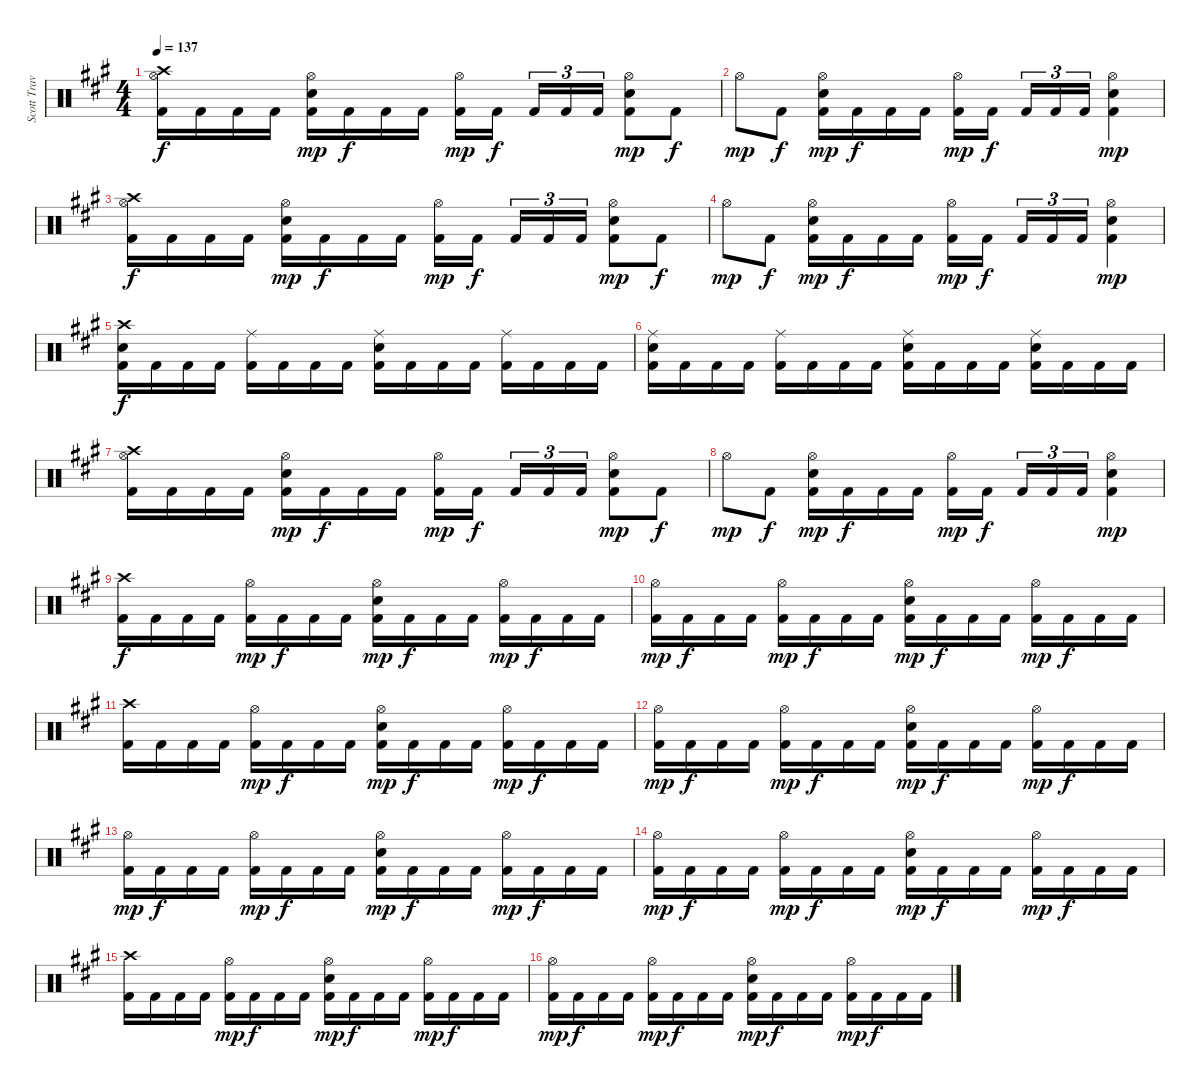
\track ("Scott Travis" "Scott Trav") {instrument percussion}
\staff {score}
\articulation defaults
\ts (4 4)
\tempo 137
\clef neutral
\ks f#minor
("Hi-Hat (open)" "Crash high (hit)" "Kick (hit) 2").16{dy f} "Kick (hit) 2".16 "Kick (hit) 2".16 "Kick (hit) 2".16 ("Hi-Hat (open)" "Snare (hit) 2" "Kick (hit) 2").16{dy mp} "Kick (hit) 2".16{dy f} "Kick (hit) 2".16 "Kick (hit) 2".16 ("Hi-Hat (open)" "Kick (hit) 2").16{dy mp} "Kick (hit) 2".16{dy f} "Kick (hit) 2".16{tu (3 2)} "Kick (hit) 2".16{tu (3 2)} "Kick (hit) 2".16{tu (3 2)} ("Hi-Hat (open)" "Snare (hit) 2" "Kick (hit) 2").8{dy mp} "Kick (hit) 2".8{dy f} |
"Hi-Hat (open)".8{dy mp} "Kick (hit) 2".8{dy f} ("Hi-Hat (open)" "Snare (hit) 2" "Kick (hit) 2").16{dy mp} "Kick (hit) 2".16{dy f} "Kick (hit) 2".16 "Kick (hit) 2".16 ("Hi-Hat (open)" "Kick (hit) 2").16{dy mp} "Kick (hit) 2".16{dy f} "Kick (hit) 2".16{tu (3 2)} "Kick (hit) 2".16{tu (3 2)} "Kick (hit) 2".16{tu (3 2)} ("Hi-Hat (open)" "Snare (hit) 2" "Kick (hit) 2").4{dy mp} |
("Hi-Hat (open)" "Crash high (hit)" "Kick (hit) 2").16{dy f} "Kick (hit) 2".16 "Kick (hit) 2".16 "Kick (hit) 2".16 ("Hi-Hat (open)" "Snare (hit) 2" "Kick (hit) 2").16{dy mp} "Kick (hit) 2".16{dy f} "Kick (hit) 2".16 "Kick (hit) 2".16 ("Hi-Hat (open)" "Kick (hit) 2").16{dy mp} "Kick (hit) 2".16{dy f} "Kick (hit) 2".16{tu (3 2)} "Kick (hit) 2".16{tu (3 2)} "Kick (hit) 2".16{tu (3 2)} ("Hi-Hat (open)" "Snare (hit) 2" "Kick (hit) 2").8{dy mp} "Kick (hit) 2".8{dy f} |
"Hi-Hat (open)".8{dy mp} "Kick (hit) 2".8{dy f} ("Hi-Hat (open)" "Snare (hit) 2" "Kick (hit) 2").16{dy mp} "Kick (hit) 2".16{dy f} "Kick (hit) 2".16 "Kick (hit) 2".16 ("Hi-Hat (open)" "Kick (hit) 2").16{dy mp} "Kick (hit) 2".16{dy f} "Kick (hit) 2".16{tu (3 2)} "Kick (hit) 2".16{tu (3 2)} "Kick (hit) 2".16{tu (3 2)} ("Hi-Hat (open)" "Snare (hit) 2" "Kick (hit) 2").4{dy mp} |
("Crash high (hit)" "Snare (hit) 2" "Kick (hit) 2").16{dy f} "Kick (hit) 2".16 "Kick (hit) 2".16 "Kick (hit) 2".16 ("Ride (middle)" "Kick (hit) 2").16 "Kick (hit) 2".16 "Kick (hit) 2".16 "Kick (hit) 2".16 ("Ride (middle)" "Snare (hit) 2" "Kick (hit) 2").16 "Kick (hit) 2".16 "Kick (hit) 2".16 "Kick (hit) 2".16 ("Ride (middle)" "Kick (hit) 2").16 "Kick (hit) 2".16 "Kick (hit) 2".16 "Kick (hit) 2".16 |
("Ride (middle)" "Snare (hit) 2" "Kick (hit) 2").16 "Kick (hit) 2".16 "Kick (hit) 2".16 "Kick (hit) 2".16 ("Ride (middle)" "Kick (hit) 2").16 "Kick (hit) 2".16 "Kick (hit) 2".16 "Kick (hit) 2".16 ("Ride (middle)" "Snare (hit) 2" "Kick (hit) 2").16 "Kick (hit) 2".16 "Kick (hit) 2".16 "Kick (hit) 2".16 ("Ride (middle)" "Snare (hit) 2" "Kick (hit) 2").16 "Kick (hit) 2".16 "Kick (hit) 2".16 "Kick (hit) 2".16 |
("Hi-Hat (open)" "Crash high (hit)" "Kick (hit) 2").16 "Kick (hit) 2".16 "Kick (hit) 2".16 "Kick (hit) 2".16 ("Hi-Hat (open)" "Snare (hit) 2" "Kick (hit) 2").16{dy mp} "Kick (hit) 2".16{dy f} "Kick (hit) 2".16 "Kick (hit) 2".16 ("Hi-Hat (open)" "Kick (hit) 2").16{dy mp} "Kick (hit) 2".16{dy f} "Kick (hit) 2".16{tu (3 2)} "Kick (hit) 2".16{tu (3 2)} "Kick (hit) 2".16{tu (3 2)} ("Hi-Hat (open)" "Snare (hit) 2" "Kick (hit) 2").8{dy mp} "Kick (hit) 2".8{dy f} |
"Hi-Hat (open)".8{dy mp} "Kick (hit) 2".8{dy f} ("Hi-Hat (open)" "Snare (hit) 2" "Kick (hit) 2").16{dy mp} "Kick (hit) 2".16{dy f} "Kick (hit) 2".16 "Kick (hit) 2".16 ("Hi-Hat (open)" "Kick (hit) 2").16{dy mp} "Kick (hit) 2".16{dy f} "Kick (hit) 2".16{tu (3 2)} "Kick (hit) 2".16{tu (3 2)} "Kick (hit) 2".16{tu (3 2)} ("Hi-Hat (open)" "Snare (hit) 2" "Kick (hit) 2").4{dy mp} |
("Crash high (hit)" "Kick (hit) 2").16{dy f} "Kick (hit) 2".16 "Kick (hit) 2".16 "Kick (hit) 2".16 ("Hi-Hat (open)" "Kick (hit) 2").16{dy mp} "Kick (hit) 2".16{dy f} "Kick (hit) 2".16 "Kick (hit) 2".16 ("Hi-Hat (open)" "Snare (hit) 2" "Kick (hit) 2").16{dy mp} "Kick (hit) 2".16{dy f} "Kick (hit) 2".16 "Kick (hit) 2".16 ("Hi-Hat (open)" "Kick (hit) 2").16{dy mp} "Kick (hit) 2".16{dy f} "Kick (hit) 2".16 "Kick (hit) 2".16 |
("Hi-Hat (open)" "Kick (hit) 2").16{dy mp} "Kick (hit) 2".16{dy f} "Kick (hit) 2".16 "Kick (hit) 2".16 ("Hi-Hat (open)" "Kick (hit) 2").16{dy mp} "Kick (hit) 2".16{dy f} "Kick (hit) 2".16 "Kick (hit) 2".16 ("Hi-Hat (open)" "Snare (hit) 2" "Kick (hit) 2").16{dy mp} "Kick (hit) 2".16{dy f} "Kick (hit) 2".16 "Kick (hit) 2".16 ("Hi-Hat (open)" "Kick (hit) 2").16{dy mp} "Kick (hit) 2".16{dy f} "Kick (hit) 2".16 "Kick (hit) 2".16 |
("Crash high (hit)" "Kick (hit) 2").16 "Kick (hit) 2".16 "Kick (hit) 2".16 "Kick (hit) 2".16 ("Hi-Hat (open)" "Kick (hit) 2").16{dy mp} "Kick (hit) 2".16{dy f} "Kick (hit) 2".16 "Kick (hit) 2".16 ("Hi-Hat (open)" "Snare (hit) 2" "Kick (hit) 2").16{dy mp} "Kick (hit) 2".16{dy f} "Kick (hit) 2".16 "Kick (hit) 2".16 ("Hi-Hat (open)" "Kick (hit) 2").16{dy mp} "Kick (hit) 2".16{dy f} "Kick (hit) 2".16 "Kick (hit) 2".16 |
("Hi-Hat (open)" "Kick (hit) 2").16{dy mp} "Kick (hit) 2".16{dy f} "Kick (hit) 2".16 "Kick (hit) 2".16 ("Hi-Hat (open)" "Kick (hit) 2").16{dy mp} "Kick (hit) 2".16{dy f} "Kick (hit) 2".16 "Kick (hit) 2".16 ("Hi-Hat (open)" "Snare (hit) 2" "Kick (hit) 2").16{dy mp} "Kick (hit) 2".16{dy f} "Kick (hit) 2".16 "Kick (hit) 2".16 ("Hi-Hat (open)" "Kick (hit) 2").16{dy mp} "Kick (hit) 2".16{dy f} "Kick (hit) 2".16 "Kick (hit) 2".16 |
("Hi-Hat (open)" "Kick (hit) 2").16{dy mp} "Kick (hit) 2".16{dy f} "Kick (hit) 2".16 "Kick (hit) 2".16 ("Hi-Hat (open)" "Kick (hit) 2").16{dy mp} "Kick (hit) 2".16{dy f} "Kick (hit) 2".16 "Kick (hit) 2".16 ("Hi-Hat (open)" "Snare (hit) 2" "Kick (hit) 2").16{dy mp} "Kick (hit) 2".16{dy f} "Kick (hit) 2".16 "Kick (hit) 2".16 ("Hi-Hat (open)" "Kick (hit) 2").16{dy mp} "Kick (hit) 2".16{dy f} "Kick (hit) 2".16 "Kick (hit) 2".16 |
("Hi-Hat (open)" "Kick (hit) 2").16{dy mp} "Kick (hit) 2".16{dy f} "Kick (hit) 2".16 "Kick (hit) 2".16 ("Hi-Hat (open)" "Kick (hit) 2").16{dy mp} "Kick (hit) 2".16{dy f} "Kick (hit) 2".16 "Kick (hit) 2".16 ("Hi-Hat (open)" "Snare (hit) 2" "Kick (hit) 2").16{dy mp} "Kick (hit) 2".16{dy f} "Kick (hit) 2".16 "Kick (hit) 2".16 ("Hi-Hat (open)" "Kick (hit) 2").16{dy mp} "Kick (hit) 2".16{dy f} "Kick (hit) 2".16 "Kick (hit) 2".16 |
("Crash high (hit)" "Kick (hit) 2").16 "Kick (hit) 2".16 "Kick (hit) 2".16 "Kick (hit) 2".16 ("Hi-Hat (open)" "Kick (hit) 2").16{dy mp} "Kick (hit) 2".16{dy f} "Kick (hit) 2".16 "Kick (hit) 2".16 ("Hi-Hat (open)" "Snare (hit) 2" "Kick (hit) 2").16{dy mp} "Kick (hit) 2".16{dy f} "Kick (hit) 2".16 "Kick (hit) 2".16 ("Hi-Hat (open)" "Kick (hit) 2").16{dy mp} "Kick (hit) 2".16{dy f} "Kick (hit) 2".16 "Kick (hit) 2".16 |
("Hi-Hat (open)" "Kick (hit) 2").16{dy mp} "Kick (hit) 2".16{dy f} "Kick (hit) 2".16 "Kick (hit) 2".16 ("Hi-Hat (open)" "Kick (hit) 2").16{dy mp} "Kick (hit) 2".16{dy f} "Kick (hit) 2".16 "Kick (hit) 2".16 ("Hi-Hat (open)" "Snare (hit) 2" "Kick (hit) 2").16{dy mp} "Kick (hit) 2".16{dy f} "Kick (hit) 2".16 "Kick (hit) 2".16 ("Hi-Hat (open)" "Kick (hit) 2").16{dy mp} "Kick (hit) 2".16{dy f} "Kick (hit) 2".16 "Kick (hit) 2".16
